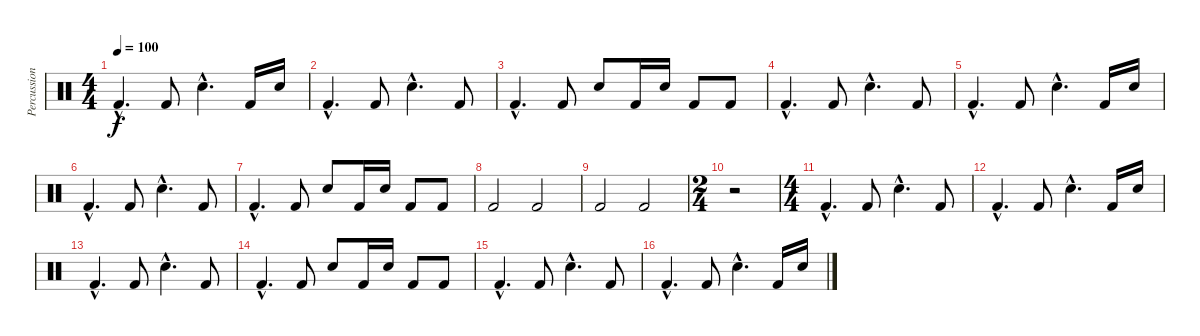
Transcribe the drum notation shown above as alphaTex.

\track ("Percussioni" "Percussion") {instrument percussion}
\staff {score}
\articulation defaults
\ts (4 4)
\tempo 100
\clef neutral
\ks c "Kick (hit) 2"{hac}.4{d dy f} "Kick (hit) 2".8 "Snare (hit) 2"{hac}.4{d} "Kick (hit) 2".16 "Snare (hit) 2".16
|
"Kick (hit) 2"{hac}.4{d} "Kick (hit) 2".8 "Snare (hit) 2"{hac}.4{d} "Kick (hit) 2".8 |
"Kick (hit) 2"{hac}.4{d} "Kick (hit) 2".8 "Snare (hit) 2".8 "Kick (hit) 2".16 "Snare (hit) 2".16 "Kick (hit) 2".8 "Kick (hit) 2".8 |
"Kick (hit) 2"{hac}.4{d} "Kick (hit) 2".8 "Snare (hit) 2"{hac}.4{d} "Kick (hit) 2".8 |
"Kick (hit) 2"{hac}.4{d} "Kick (hit) 2".8 "Snare (hit) 2"{hac}.4{d} "Kick (hit) 2".16 "Snare (hit) 2".16 |
"Kick (hit) 2"{hac}.4{d} "Kick (hit) 2".8 "Snare (hit) 2"{hac}.4{d} "Kick (hit) 2".8 |
"Kick (hit) 2"{hac}.4{d} "Kick (hit) 2".8 "Snare (hit) 2".8 "Kick (hit) 2".16 "Snare (hit) 2".16 "Kick (hit) 2".8 "Kick (hit) 2".8 |
"Kick (hit) 2".2 "Kick (hit) 2".2 |
"Kick (hit) 2".2 "Kick (hit) 2".2 |
\ts (2 4)
r.2 |
\ts (4 4)
"Kick (hit) 2"{hac}.4{d} "Kick (hit) 2".8 "Snare (hit) 2"{hac}.4{d} "Kick (hit) 2".8 |
"Kick (hit) 2"{hac}.4{d} "Kick (hit) 2".8 "Snare (hit) 2"{hac}.4{d} "Kick (hit) 2".16 "Snare (hit) 2".16 |
"Kick (hit) 2"{hac}.4{d} "Kick (hit) 2".8 "Snare (hit) 2"{hac}.4{d} "Kick (hit) 2".8 |
"Kick (hit) 2"{hac}.4{d} "Kick (hit) 2".8 "Snare (hit) 2".8 "Kick (hit) 2".16 "Snare (hit) 2".16 "Kick (hit) 2".8 "Kick (hit) 2".8 |
"Kick (hit) 2"{hac}.4{d} "Kick (hit) 2".8 "Snare (hit) 2"{hac}.4{d} "Kick (hit) 2".8 |
"Kick (hit) 2"{hac}.4{d} "Kick (hit) 2".8 "Snare (hit) 2"{hac}.4{d} "Kick (hit) 2".16 "Snare (hit) 2".16
